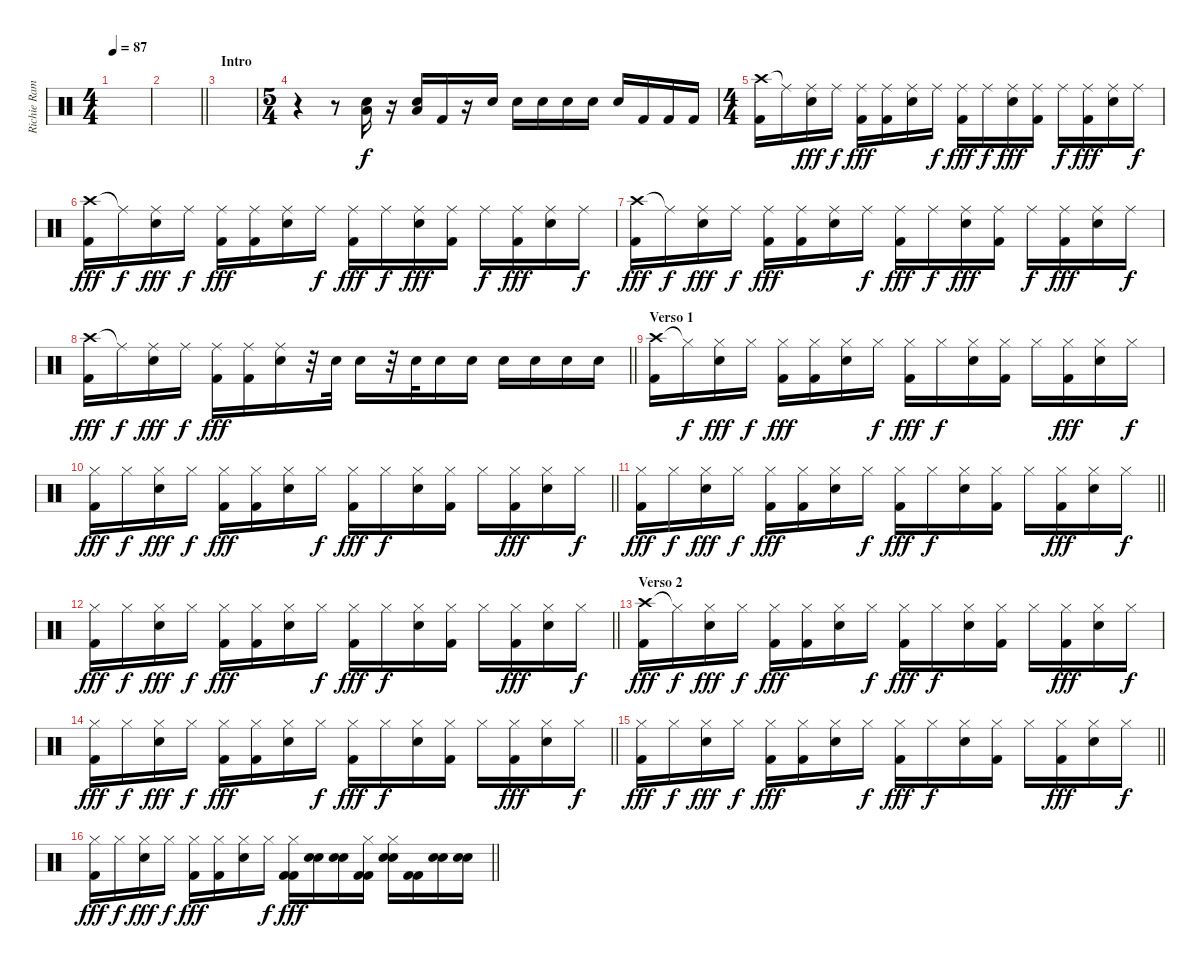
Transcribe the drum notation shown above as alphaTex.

\track ("Richie Ramone " "Richie Ram") {instrument percussion}
\staff {score}
\articulation defaults
\ts (4 4)
\tempo 87
\clef neutral
\ks c
|
\barLineRight lightlight
|
\section ("" "Intro")
|
\ts (5 4)
r.4 r.8 ("Low Tom (hit)" "Electric Snare (hit)").16 r.16 ("Low Tom (hit)" "Electric Snare (hit)").16 "Kick (hit) 2".16 r.16 "Electric Snare (hit)".16 "Electric Snare (hit)".16 "Electric Snare (hit)".16 "Electric Snare (hit)".16 "Electric Snare (hit)".16 "Electric Snare (hit)".16 "Kick (hit) 2".16 "Kick (hit) 2".16 "Kick (hit) 2".16 |
\ts (4 4)
("Crash high (hit)" "Kick (hit) 2").16 "Ride (middle)"{t}.16{dy f} ("Ride (middle)" "Electric Snare (hit)").16{dy fff} "Ride (middle)".16{dy f} ("Ride (middle)" "Kick (hit) 2").16{dy fff} ("Ride (middle)" "Kick (hit) 2").16 ("Ride (middle)" "Electric Snare (hit)").16 "Ride (middle)".16{dy f} ("Ride (middle)" "Kick (hit) 2").16{dy fff} "Ride (middle)".16{dy f} ("Ride (middle)" "Electric Snare (hit)").16{dy fff} ("Ride (middle)" "Kick (hit) 2").16 "Ride (middle)".16{dy f} ("Ride (middle)" "Kick (hit) 2").16{dy fff} ("Ride (middle)" "Electric Snare (hit)").16 "Ride (middle)".16{dy f} |
("Crash high (hit)" "Kick (hit) 2").16{dy fff} "Ride (middle)"{t}.16{dy f} ("Ride (middle)" "Electric Snare (hit)").16{dy fff} "Ride (middle)".16{dy f} ("Ride (middle)" "Kick (hit) 2").16{dy fff} ("Ride (middle)" "Kick (hit) 2").16 ("Ride (middle)" "Electric Snare (hit)").16 "Ride (middle)".16{dy f} ("Ride (middle)" "Kick (hit) 2").16{dy fff} "Ride (middle)".16{dy f} ("Ride (middle)" "Electric Snare (hit)").16{dy fff} ("Ride (middle)" "Kick (hit) 2").16 "Ride (middle)".16{dy f} ("Ride (middle)" "Kick (hit) 2").16{dy fff} ("Ride (middle)" "Electric Snare (hit)").16 "Ride (middle)".16{dy f} |
("Crash high (hit)" "Kick (hit) 2").16{dy fff} "Ride (middle)"{t}.16{dy f} ("Ride (middle)" "Electric Snare (hit)").16{dy fff} "Ride (middle)".16{dy f} ("Ride (middle)" "Kick (hit) 2").16{dy fff} ("Ride (middle)" "Kick (hit) 2").16 ("Ride (middle)" "Electric Snare (hit)").16 "Ride (middle)".16{dy f} ("Ride (middle)" "Kick (hit) 2").16{dy fff} "Ride (middle)".16{dy f} ("Ride (middle)" "Electric Snare (hit)").16{dy fff} ("Ride (middle)" "Kick (hit) 2").16 "Ride (middle)".16{dy f} ("Ride (middle)" "Kick (hit) 2").16{dy fff} ("Ride (middle)" "Electric Snare (hit)").16 "Ride (middle)".16{dy f} |
\barLineRight lightlight
("Crash high (hit)" "Kick (hit) 2").16{dy fff} "Ride (middle)"{t}.16{dy f} ("Ride (middle)" "Electric Snare (hit)").16{dy fff} "Ride (middle)".16{dy f} ("Ride (middle)" "Kick (hit) 2").16{dy fff} ("Ride (middle)" "Kick (hit) 2").16 ("Ride (middle)" "Electric Snare (hit)").16 r.32 "Electric Snare (hit)".32 "Electric Snare (hit)".16 r.32 "Electric Snare (hit)".32 "Electric Snare (hit)".16 "Electric Snare (hit)".16 "Electric Snare (hit)".16 "Electric Snare (hit)".16 "Electric Snare (hit)".16 "Electric Snare (hit)".16 |
\section ("" "Verso 1")
("Crash high (hit)" "Kick (hit) 2").16 "Hi-Hat (closed)"{t}.16{dy f} ("Hi-Hat (closed)" "Electric Snare (hit)").16{dy fff} "Hi-Hat (closed)".16{dy f} ("Hi-Hat (closed)" "Kick (hit) 2").16{dy fff} ("Hi-Hat (closed)" "Kick (hit) 2").16 ("Hi-Hat (closed)" "Electric Snare (hit)").16 "Hi-Hat (closed)".16{dy f} ("Hi-Hat (closed)" "Kick (hit) 2").16{dy fff} "Hi-Hat (closed)".16{dy f} ("Hi-Hat (closed)" "Electric Snare (hit)").16 ("Hi-Hat (closed)" "Kick (hit) 2").16 "Hi-Hat (closed)".16 ("Hi-Hat (closed)" "Kick (hit) 2").16{dy fff} ("Hi-Hat (closed)" "Electric Snare (hit)").16 "Hi-Hat (closed)".16{dy f} |
\barLineRight lightlight
("Hi-Hat (closed)" "Kick (hit) 2").16{dy fff} "Hi-Hat (closed)".16{dy f} ("Hi-Hat (closed)" "Electric Snare (hit)").16{dy fff} "Hi-Hat (closed)".16{dy f} ("Hi-Hat (closed)" "Kick (hit) 2").16{dy fff} ("Hi-Hat (closed)" "Kick (hit) 2").16 ("Hi-Hat (closed)" "Electric Snare (hit)").16 "Hi-Hat (closed)".16{dy f} ("Hi-Hat (closed)" "Kick (hit) 2").16{dy fff} "Hi-Hat (closed)".16{dy f} ("Hi-Hat (closed)" "Electric Snare (hit)").16 ("Hi-Hat (closed)" "Kick (hit) 2").16 "Hi-Hat (closed)".16 ("Hi-Hat (closed)" "Kick (hit) 2").16{dy fff} ("Hi-Hat (closed)" "Electric Snare (hit)").16 "Hi-Hat (closed)".16{dy f} |
\barLineRight lightlight
("Hi-Hat (closed)" "Kick (hit) 2").16{dy fff} "Hi-Hat (closed)".16{dy f} ("Hi-Hat (closed)" "Electric Snare (hit)").16{dy fff} "Hi-Hat (closed)".16{dy f} ("Hi-Hat (closed)" "Kick (hit) 2").16{dy fff} ("Hi-Hat (closed)" "Kick (hit) 2").16 ("Hi-Hat (closed)" "Electric Snare (hit)").16 "Hi-Hat (closed)".16{dy f} ("Hi-Hat (closed)" "Kick (hit) 2").16{dy fff} "Hi-Hat (closed)".16{dy f} ("Hi-Hat (closed)" "Electric Snare (hit)").16 ("Hi-Hat (closed)" "Kick (hit) 2").16 "Hi-Hat (closed)".16 ("Hi-Hat (closed)" "Kick (hit) 2").16{dy fff} ("Hi-Hat (closed)" "Electric Snare (hit)").16 "Hi-Hat (closed)".16{dy f} |
\barLineRight lightlight
("Hi-Hat (closed)" "Kick (hit) 2").16{dy fff} "Hi-Hat (closed)".16{dy f} ("Hi-Hat (closed)" "Electric Snare (hit)").16{dy fff} "Hi-Hat (closed)".16{dy f} ("Hi-Hat (closed)" "Kick (hit) 2").16{dy fff} ("Hi-Hat (closed)" "Kick (hit) 2").16 ("Hi-Hat (closed)" "Electric Snare (hit)").16 "Hi-Hat (closed)".16{dy f} ("Hi-Hat (closed)" "Kick (hit) 2").16{dy fff} "Hi-Hat (closed)".16{dy f} ("Hi-Hat (closed)" "Electric Snare (hit)").16 ("Hi-Hat (closed)" "Kick (hit) 2").16 "Hi-Hat (closed)".16 ("Hi-Hat (closed)" "Kick (hit) 2").16{dy fff} ("Hi-Hat (closed)" "Electric Snare (hit)").16 "Hi-Hat (closed)".16{dy f} |
\section ("" "Verso 2")
("Crash high (hit)" "Kick (hit) 2").16{dy fff} "Hi-Hat (closed)"{t}.16{dy f} ("Hi-Hat (closed)" "Electric Snare (hit)").16{dy fff} "Hi-Hat (closed)".16{dy f} ("Hi-Hat (closed)" "Kick (hit) 2").16{dy fff} ("Hi-Hat (closed)" "Kick (hit) 2").16 ("Hi-Hat (closed)" "Electric Snare (hit)").16 "Hi-Hat (closed)".16{dy f} ("Hi-Hat (closed)" "Kick (hit) 2").16{dy fff} "Hi-Hat (closed)".16{dy f} ("Hi-Hat (closed)" "Electric Snare (hit)").16 ("Hi-Hat (closed)" "Kick (hit) 2").16 "Hi-Hat (closed)".16 ("Hi-Hat (closed)" "Kick (hit) 2").16{dy fff} ("Hi-Hat (closed)" "Electric Snare (hit)").16 "Hi-Hat (closed)".16{dy f} |
\barLineRight lightlight
("Hi-Hat (closed)" "Kick (hit) 2").16{dy fff} "Hi-Hat (closed)".16{dy f} ("Hi-Hat (closed)" "Electric Snare (hit)").16{dy fff} "Hi-Hat (closed)".16{dy f} ("Hi-Hat (closed)" "Kick (hit) 2").16{dy fff} ("Hi-Hat (closed)" "Kick (hit) 2").16 ("Hi-Hat (closed)" "Electric Snare (hit)").16 "Hi-Hat (closed)".16{dy f} ("Hi-Hat (closed)" "Kick (hit) 2").16{dy fff} "Hi-Hat (closed)".16{dy f} ("Hi-Hat (closed)" "Electric Snare (hit)").16 ("Hi-Hat (closed)" "Kick (hit) 2").16 "Hi-Hat (closed)".16 ("Hi-Hat (closed)" "Kick (hit) 2").16{dy fff} ("Hi-Hat (closed)" "Electric Snare (hit)").16 "Hi-Hat (closed)".16{dy f} |
\barLineRight lightlight
("Hi-Hat (closed)" "Kick (hit) 2").16{dy fff} "Hi-Hat (closed)".16{dy f} ("Hi-Hat (closed)" "Electric Snare (hit)").16{dy fff} "Hi-Hat (closed)".16{dy f} ("Hi-Hat (closed)" "Kick (hit) 2").16{dy fff} ("Hi-Hat (closed)" "Kick (hit) 2").16 ("Hi-Hat (closed)" "Electric Snare (hit)").16 "Hi-Hat (closed)".16{dy f} ("Hi-Hat (closed)" "Kick (hit) 2").16{dy fff} "Hi-Hat (closed)".16{dy f} ("Hi-Hat (closed)" "Electric Snare (hit)").16 ("Hi-Hat (closed)" "Kick (hit) 2").16 "Hi-Hat (closed)".16 ("Hi-Hat (closed)" "Kick (hit) 2").16{dy fff} ("Hi-Hat (closed)" "Electric Snare (hit)").16 "Hi-Hat (closed)".16{dy f} |
\barLineRight lightlight
("Hi-Hat (closed)" "Kick (hit) 2").16{dy fff} "Hi-Hat (closed)".16{dy f} ("Hi-Hat (closed)" "Electric Snare (hit)").16{dy fff} "Hi-Hat (closed)".16{dy f} ("Hi-Hat (closed)" "Kick (hit) 2").16{dy fff} ("Hi-Hat (closed)" "Kick (hit) 2").16 ("Hi-Hat (closed)" "Electric Snare (hit)").16 "Hi-Hat (closed)".16{dy f} ("Hi-Hat (closed)" "Kick (hit) 2" "Kick (hit) 2").16{dy fff} ("Electric Snare (hit)" "Electric Snare (hit)").16 ("Electric Snare (hit)" "Electric Snare (hit)").16 ("Hi-Hat (closed)" "Kick (hit) 2" "Kick (hit) 2").16 ("Hi-Hat (closed)" "Electric Snare (hit)" "Electric Snare (hit)").16 ("Kick (hit) 2" "Kick (hit) 2").16 ("Electric Snare (hit)" "Electric Snare (hit)").16 ("Electric Snare (hit)" "Electric Snare (hit)").16
